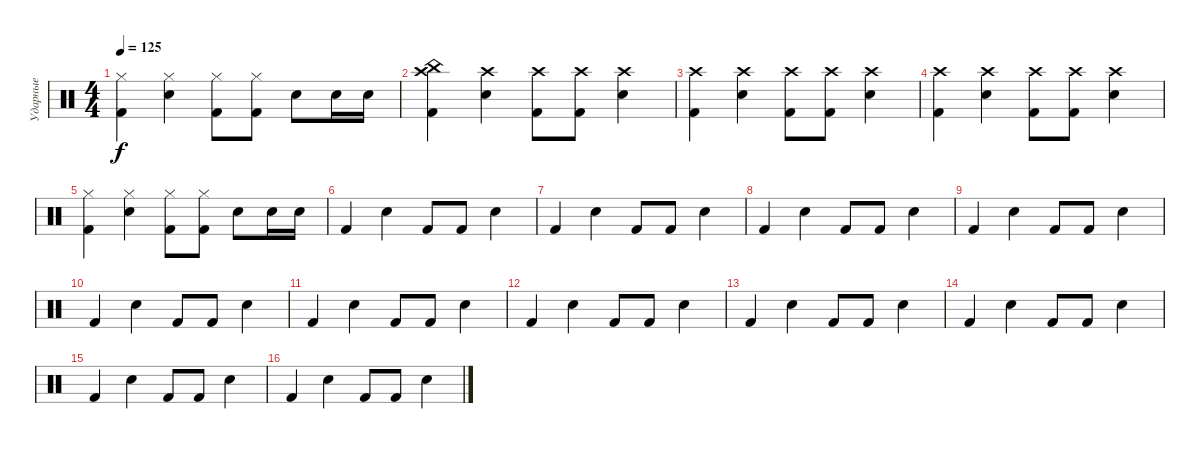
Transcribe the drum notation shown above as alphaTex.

\track ("Ударные" "Ударные") {instrument percussion}
\staff {score}
\articulation defaults
\ts (4 4)
\tempo 125
\clef neutral
\ks c
("Hi-Hat (closed)" "Kick (hit) 2").4{dy f} ("Hi-Hat (closed)" "Snare (hit) 2").4 ("Hi-Hat (closed)" "Kick (hit) 2").8 ("Hi-Hat (closed)" "Kick (hit) 2").8 "Snare (hit) 2".8 "Snare (hit) 2".16 "Snare (hit) 2".16 |
("China (hit)" "Crash high (hit)" "Kick (hit) 2").4 ("Crash high (hit)" "Snare (hit) 2").4 ("Crash high (hit)" "Kick (hit) 2").8 ("Crash high (hit)" "Kick (hit) 2").8 ("Crash high (hit)" "Snare (hit) 2").4 |
("Crash high (hit)" "Kick (hit) 2").4 ("Crash high (hit)" "Snare (hit) 2").4 ("Crash high (hit)" "Kick (hit) 2").8 ("Crash high (hit)" "Kick (hit) 2").8 ("Crash high (hit)" "Snare (hit) 2").4 |
("Crash high (hit)" "Kick (hit) 2").4 ("Crash high (hit)" "Snare (hit) 2").4 ("Crash high (hit)" "Kick (hit) 2").8 ("Crash high (hit)" "Kick (hit) 2").8 ("Crash high (hit)" "Snare (hit) 2").4 |
("Hi-Hat (closed)" "Kick (hit) 2").4 ("Hi-Hat (closed)" "Snare (hit) 2").4 ("Hi-Hat (closed)" "Kick (hit) 2").8 ("Hi-Hat (closed)" "Kick (hit) 2").8 "Snare (hit) 2".8 "Snare (hit) 2".16 "Snare (hit) 2".16 |
"Kick (hit) 2".4 "Snare (hit) 2".4 "Kick (hit) 2".8 "Kick (hit) 2".8 "Snare (hit) 2".4 |
"Kick (hit) 2".4 "Snare (hit) 2".4 "Kick (hit) 2".8 "Kick (hit) 2".8 "Snare (hit) 2".4 |
"Kick (hit) 2".4 "Snare (hit) 2".4 "Kick (hit) 2".8 "Kick (hit) 2".8 "Snare (hit) 2".4 |
"Kick (hit) 2".4 "Snare (hit) 2".4 "Kick (hit) 2".8 "Kick (hit) 2".8 "Snare (hit) 2".4 |
"Kick (hit) 2".4 "Snare (hit) 2".4 "Kick (hit) 2".8 "Kick (hit) 2".8 "Snare (hit) 2".4 |
"Kick (hit) 2".4 "Snare (hit) 2".4 "Kick (hit) 2".8 "Kick (hit) 2".8 "Snare (hit) 2".4 |
"Kick (hit) 2".4 "Snare (hit) 2".4 "Kick (hit) 2".8 "Kick (hit) 2".8 "Snare (hit) 2".4 |
"Kick (hit) 2".4 "Snare (hit) 2".4 "Kick (hit) 2".8 "Kick (hit) 2".8 "Snare (hit) 2".4 |
"Kick (hit) 2".4 "Snare (hit) 2".4 "Kick (hit) 2".8 "Kick (hit) 2".8 "Snare (hit) 2".4 |
"Kick (hit) 2".4 "Snare (hit) 2".4 "Kick (hit) 2".8 "Kick (hit) 2".8 "Snare (hit) 2".4 |
"Kick (hit) 2".4 "Snare (hit) 2".4 "Kick (hit) 2".8 "Kick (hit) 2".8 "Snare (hit) 2".4
